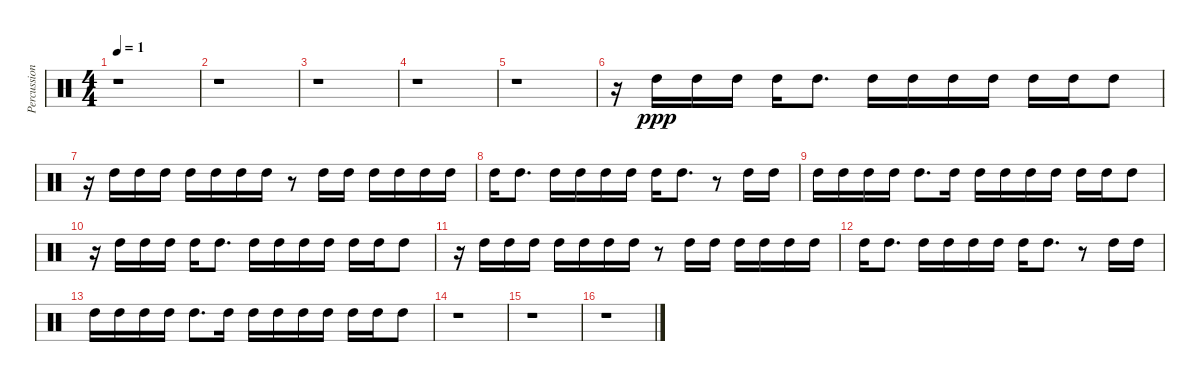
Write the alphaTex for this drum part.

\track ("Percussion 1" "Percussion") {instrument percussion}
\staff {score}
\articulation defaults
\ts (4 4)
\tempo 1
\clef neutral
\ks c
r.1{dy ppp} |
r.1 |
r.1 |
r.1 |
r.1 |
r.16 "High Tom (hit)".16 "High Tom (hit)".16 "High Tom (hit)".16 "High Tom (hit)".16 "High Tom (hit)".8{d} "High Tom (hit)".16 "High Tom (hit)".16 "High Tom (hit)".16 "High Tom (hit)".16 "High Tom (hit)".16 "High Tom (hit)".16 "High Tom (hit)".8 |
r.16 "High Tom (hit)".16 "High Tom (hit)".16 "High Tom (hit)".16 "High Tom (hit)".16 "High Tom (hit)".16 "High Tom (hit)".16 "High Tom (hit)".16 r.8 "High Tom (hit)".16 "High Tom (hit)".16 "High Tom (hit)".16 "High Tom (hit)".16 "High Tom (hit)".16 "High Tom (hit)".16 |
"High Tom (hit)".16 "High Tom (hit)".8{d} "High Tom (hit)".16 "High Tom (hit)".16 "High Tom (hit)".16 "High Tom (hit)".16 "High Tom (hit)".16 "High Tom (hit)".8{d} r.8 "High Tom (hit)".16 "High Tom (hit)".16 |
"High Tom (hit)".16 "High Tom (hit)".16 "High Tom (hit)".16 "High Tom (hit)".16 "High Tom (hit)".8{d} "High Tom (hit)".16 "High Tom (hit)".16 "High Tom (hit)".16 "High Tom (hit)".16 "High Tom (hit)".16 "High Tom (hit)".16 "High Tom (hit)".16 "High Tom (hit)".8 |
r.16 "High Tom (hit)".16 "High Tom (hit)".16 "High Tom (hit)".16 "High Tom (hit)".16 "High Tom (hit)".8{d} "High Tom (hit)".16 "High Tom (hit)".16 "High Tom (hit)".16 "High Tom (hit)".16 "High Tom (hit)".16 "High Tom (hit)".16 "High Tom (hit)".8 |
r.16 "High Tom (hit)".16 "High Tom (hit)".16 "High Tom (hit)".16 "High Tom (hit)".16 "High Tom (hit)".16 "High Tom (hit)".16 "High Tom (hit)".16 r.8 "High Tom (hit)".16 "High Tom (hit)".16 "High Tom (hit)".16 "High Tom (hit)".16 "High Tom (hit)".16 "High Tom (hit)".16 |
"High Tom (hit)".16 "High Tom (hit)".8{d} "High Tom (hit)".16 "High Tom (hit)".16 "High Tom (hit)".16 "High Tom (hit)".16 "High Tom (hit)".16 "High Tom (hit)".8{d} r.8 "High Tom (hit)".16 "High Tom (hit)".16 |
"High Tom (hit)".16 "High Tom (hit)".16 "High Tom (hit)".16 "High Tom (hit)".16 "High Tom (hit)".8{d} "High Tom (hit)".16 "High Tom (hit)".16 "High Tom (hit)".16 "High Tom (hit)".16 "High Tom (hit)".16 "High Tom (hit)".16 "High Tom (hit)".16 "High Tom (hit)".8 |
r.1 |
r.1 |
r.1
